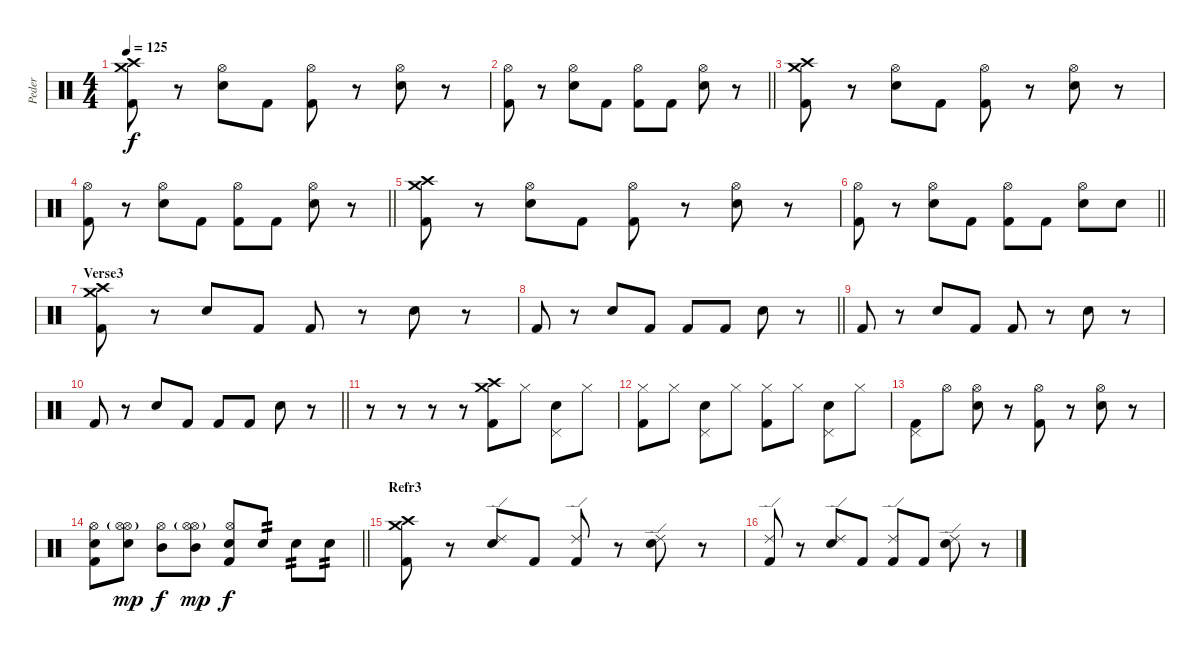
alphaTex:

\track ("Peder" "Peder") {instrument percussion}
\staff {score}
\articulation defaults
\ts (4 4)
\tempo 125
\clef neutral
\ks c
("Crash medium (hit)" "Crash high (hit)" "Kick (hit) 2").8{dy f} r.8 ("Hi-Hat (open)" "Electric Snare (hit)").8 "Kick (hit) 2".8 ("Hi-Hat (open)" "Kick (hit) 2").8 r.8 ("Hi-Hat (open)" "Electric Snare (hit)").8 r.8 |
\barLineRight lightlight
("Hi-Hat (open)" "Kick (hit) 2").8 r.8 ("Hi-Hat (open)" "Electric Snare (hit)").8 "Kick (hit) 2".8 ("Hi-Hat (open)" "Kick (hit) 2").8 "Kick (hit) 2".8 ("Hi-Hat (open)" "Electric Snare (hit)").8 r.8 |
("Crash medium (hit)" "Crash high (hit)" "Kick (hit) 2").8 r.8 ("Hi-Hat (open)" "Electric Snare (hit)").8 "Kick (hit) 2".8 ("Hi-Hat (open)" "Kick (hit) 2").8 r.8 ("Hi-Hat (open)" "Electric Snare (hit)").8 r.8 |
\barLineRight lightlight
("Hi-Hat (open)" "Kick (hit) 2").8 r.8 ("Hi-Hat (open)" "Electric Snare (hit)").8 "Kick (hit) 2".8 ("Hi-Hat (open)" "Kick (hit) 2").8 "Kick (hit) 2".8 ("Hi-Hat (open)" "Electric Snare (hit)").8 r.8 |
("Crash medium (hit)" "Crash high (hit)" "Kick (hit) 2").8 r.8 ("Hi-Hat (open)" "Electric Snare (hit)").8 "Kick (hit) 2".8 ("Hi-Hat (open)" "Kick (hit) 2").8 r.8 ("Hi-Hat (open)" "Electric Snare (hit)").8 r.8 |
\barLineRight lightlight
("Hi-Hat (open)" "Kick (hit) 2").8 r.8 ("Hi-Hat (open)" "Electric Snare (hit)").8 "Kick (hit) 2".8 ("Hi-Hat (open)" "Kick (hit) 2").8 "Kick (hit) 2".8 ("Hi-Hat (open)" "Electric Snare (hit)").8 "Electric Snare (hit)".8 |
\section ("" "Verse3")
("Crash medium (hit)" "Crash high (hit)" "Kick (hit) 2").8 r.8 "Electric Snare (hit)".8 "Kick (hit) 2".8 "Kick (hit) 2".8 r.8 "Electric Snare (hit)".8 r.8 |
\barLineRight lightlight "Kick (hit) 2".8
r.8 "Electric Snare (hit)".8 "Kick (hit) 2".8 "Kick (hit) 2".8 "Kick (hit) 2".8 "Electric Snare (hit)".8 r.8 |
"Kick (hit) 2".8 r.8 "Electric Snare (hit)".8 "Kick (hit) 2".8 "Kick (hit) 2".8 r.8 "Electric Snare (hit)".8 r.8 |
\barLineRight lightlight "Kick (hit) 2".8
r.8 "Electric Snare (hit)".8 "Kick (hit) 2".8 "Kick (hit) 2".8 "Kick (hit) 2".8 "Electric Snare (hit)".8 r.8 |
r.8 r.8 r.8 r.8 ("Crash medium (hit)" "Crash high (hit)" "Kick (hit) 2").8 "Hi-Hat (closed)".8 ("Pedal Hi-Hat (hit)" "Electric Snare (hit)").8 "Hi-Hat (closed)".8 |
("Hi-Hat (closed)" "Kick (hit) 2").8 "Hi-Hat (closed)".8 ("Pedal Hi-Hat (hit)" "Electric Snare (hit)").8 "Hi-Hat (closed)".8 ("Hi-Hat (closed)" "Kick (hit) 2").8 "Hi-Hat (closed)".8 ("Pedal Hi-Hat (hit)" "Electric Snare (hit)").8 "Hi-Hat (closed)".8 |
("Pedal Hi-Hat (hit)" "Kick (hit) 2").8 "Hi-Hat (open)".8 ("Hi-Hat (open)" "Electric Snare (hit)").8 r.8 ("Hi-Hat (open)" "Kick (hit) 2").8 r.8 ("Hi-Hat (open)" "Electric Snare (hit)").8 r.8 |
\barLineRight lightlight
("Hi-Hat (open)" "Electric Snare (hit)" "Kick (hit) 2").8 ("Hi-Hat (open)"{g} "Hi-Hat (open)"{g} "Electric Snare (hit)").8{dy mp} ("Hi-Hat (open)" "Mid Tom (hit)").8{dy f} ("Hi-Hat (open)"{g} "Hi-Hat (open)"{g} "Mid Tom (hit)").8{dy mp} ("Hi-Hat (open)" "Electric Snare (hit)" "Kick (hit) 2").8{dy f} "Electric Snare (hit)".8{tp 2} "Electric Snare (hit)".8{tp 2} "Electric Snare (hit)".8{tp 2} |
\section ("" "Refr3")
("Crash medium (hit)" "Crash high (hit)" "Kick (hit) 2").8 r.8 ("Ride (edge) 2" "Electric Snare (hit)").8 "Kick (hit) 2".8 ("Ride (edge) 2" "Kick (hit) 2").8 r.8 ("Ride (edge) 2" "Electric Snare (hit)").8 r.8 |
("Ride (edge) 2" "Kick (hit) 2").8 r.8 ("Ride (edge) 2" "Electric Snare (hit)").8 "Kick (hit) 2".8 ("Ride (edge) 2" "Kick (hit) 2").8 "Kick (hit) 2".8 ("Ride (edge) 2" "Electric Snare (hit)").8 r.8
